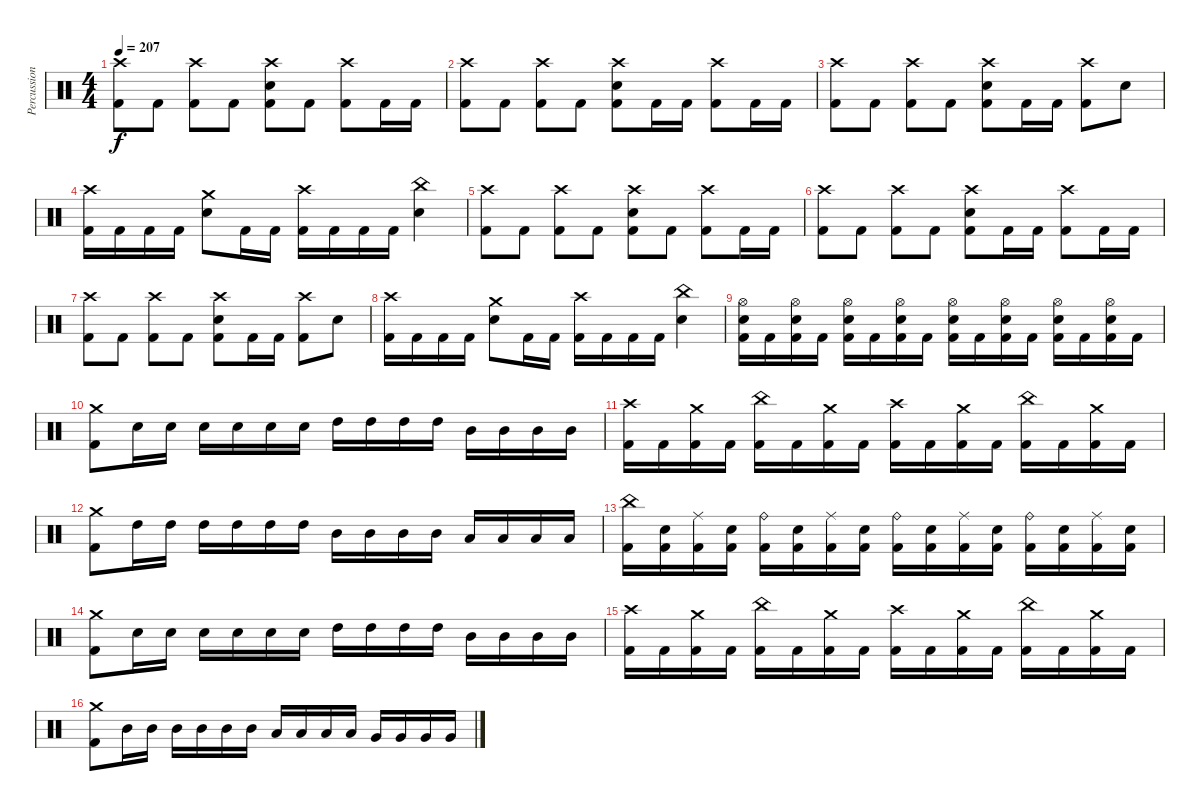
\track ("Percussion" "Percussion") {instrument percussion}
\staff {score}
\articulation defaults
\ts (4 4)
\tempo 207
\clef neutral
\ks c
("Crash high (hit)" "Kick (hit) 2").8{dy f} "Kick (hit) 2".8 ("Crash high (hit)" "Kick (hit) 2").8 "Kick (hit) 2".8 ("Crash high (hit)" "Electric Snare (hit)" "Kick (hit) 2").8 "Kick (hit) 2".8 ("Crash high (hit)" "Kick (hit) 2").8 "Kick (hit) 2".16 "Kick (hit) 2".16 |
("Crash high (hit)" "Kick (hit) 2").8 "Kick (hit) 2".8 ("Crash high (hit)" "Kick (hit) 2").8 "Kick (hit) 2".8 ("Crash high (hit)" "Electric Snare (hit)" "Kick (hit) 2").8 "Kick (hit) 2".16 "Kick (hit) 2".16 ("Crash high (hit)" "Kick (hit) 2").8 "Kick (hit) 2".16 "Kick (hit) 2".16 |
("Crash high (hit)" "Kick (hit) 2").8 "Kick (hit) 2".8 ("Crash high (hit)" "Kick (hit) 2").8 "Kick (hit) 2".8 ("Crash high (hit)" "Electric Snare (hit)" "Kick (hit) 2").8 "Kick (hit) 2".16 "Kick (hit) 2".16 ("Crash high (hit)" "Kick (hit) 2").8 "Electric Snare (hit)".8 |
("Crash high (hit)" "Kick (hit) 2").16 "Kick (hit) 2".16 "Kick (hit) 2".16 "Kick (hit) 2".16 ("Crash medium (hit)" "Electric Snare (hit)").8 "Kick (hit) 2".16 "Kick (hit) 2".16 ("Crash high (hit)" "Kick (hit) 2").16 "Kick (hit) 2".16 "Kick (hit) 2".16 "Kick (hit) 2".16 ("China (hit)" "Electric Snare (hit)").4 |
("Crash high (hit)" "Kick (hit) 2").8 "Kick (hit) 2".8 ("Crash high (hit)" "Kick (hit) 2").8 "Kick (hit) 2".8 ("Crash high (hit)" "Electric Snare (hit)" "Kick (hit) 2").8 "Kick (hit) 2".8 ("Crash high (hit)" "Kick (hit) 2").8 "Kick (hit) 2".16 "Kick (hit) 2".16 |
("Crash high (hit)" "Kick (hit) 2").8 "Kick (hit) 2".8 ("Crash high (hit)" "Kick (hit) 2").8 "Kick (hit) 2".8 ("Crash high (hit)" "Electric Snare (hit)" "Kick (hit) 2").8 "Kick (hit) 2".16 "Kick (hit) 2".16 ("Crash high (hit)" "Kick (hit) 2").8 "Kick (hit) 2".16 "Kick (hit) 2".16 |
("Crash high (hit)" "Kick (hit) 2").8 "Kick (hit) 2".8 ("Crash high (hit)" "Kick (hit) 2").8 "Kick (hit) 2".8 ("Crash high (hit)" "Electric Snare (hit)" "Kick (hit) 2").8 "Kick (hit) 2".16 "Kick (hit) 2".16 ("Crash high (hit)" "Kick (hit) 2").8 "Electric Snare (hit)".8 |
("Crash high (hit)" "Kick (hit) 2").16 "Kick (hit) 2".16 "Kick (hit) 2".16 "Kick (hit) 2".16 ("Crash medium (hit)" "Electric Snare (hit)").8 "Kick (hit) 2".16 "Kick (hit) 2".16 ("Crash high (hit)" "Kick (hit) 2").16 "Kick (hit) 2".16 "Kick (hit) 2".16 "Kick (hit) 2".16 ("China (hit)" "Electric Snare (hit)").4 |
("Hi-Hat (open)" "Electric Snare (hit)" "Kick (hit) 2").16 "Kick (hit) 2".16 ("Hi-Hat (open)" "Electric Snare (hit)" "Kick (hit) 2").16 "Kick (hit) 2".16 ("Hi-Hat (open)" "Electric Snare (hit)" "Kick (hit) 2").16 "Kick (hit) 2".16 ("Hi-Hat (open)" "Electric Snare (hit)" "Kick (hit) 2").16 "Kick (hit) 2".16 ("Hi-Hat (open)" "Electric Snare (hit)" "Kick (hit) 2").16 "Kick (hit) 2".16 ("Hi-Hat (open)" "Electric Snare (hit)" "Kick (hit) 2").16 "Kick (hit) 2".16 ("Hi-Hat (open)" "Electric Snare (hit)" "Kick (hit) 2").16 "Kick (hit) 2".16 ("Hi-Hat (open)" "Electric Snare (hit)" "Kick (hit) 2").16 "Kick (hit) 2".16 |
("Crash medium (hit)" "Kick (hit) 2").8 "Electric Snare (hit)".16 "Electric Snare (hit)".16 "Electric Snare (hit)".16 "Electric Snare (hit)".16 "Electric Snare (hit)".16 "Electric Snare (hit)".16 "High Tom (hit)".16 "High Tom (hit)".16 "High Tom (hit)".16 "High Tom (hit)".16 "Mid Tom (hit)".16 "Mid Tom (hit)".16 "Mid Tom (hit)".16 "Mid Tom (hit)".16 |
("Crash high (hit)" "Kick (hit) 2").16 "Kick (hit) 2".16 ("Crash medium (hit)" "Kick (hit) 2").16 "Kick (hit) 2".16 ("China (hit)" "Kick (hit) 2").16 "Kick (hit) 2".16 ("Crash medium (hit)" "Kick (hit) 2").16 "Kick (hit) 2".16 ("Crash high (hit)" "Kick (hit) 2").16 "Kick (hit) 2".16 ("Crash medium (hit)" "Kick (hit) 2").16 "Kick (hit) 2".16 ("China (hit)" "Kick (hit) 2").16 "Kick (hit) 2".16 ("Crash medium (hit)" "Kick (hit) 2").16 "Kick (hit) 2".16 |
("Crash medium (hit)" "Kick (hit) 2").8 "High Tom (hit)".16 "High Tom (hit)".16 "High Tom (hit)".16 "High Tom (hit)".16 "High Tom (hit)".16 "High Tom (hit)".16 "Mid Tom (hit)".16 "Mid Tom (hit)".16 "Mid Tom (hit)".16 "Mid Tom (hit)".16 "Low Tom (hit)".16 "Low Tom (hit)".16 "Low Tom (hit)".16 "Low Tom (hit)".16 |
("China (hit)" "Kick (hit) 2").16 ("Electric Snare (hit)" "Kick (hit) 2").16 ("Ride (middle)" "Kick (hit) 2").16 ("Electric Snare (hit)" "Kick (hit) 2").16 ("Ride (bell)" "Kick (hit) 2").16 ("Electric Snare (hit)" "Kick (hit) 2").16 ("Ride (middle)" "Kick (hit) 2").16 ("Electric Snare (hit)" "Kick (hit) 2").16 ("Ride (bell)" "Kick (hit) 2").16 ("Electric Snare (hit)" "Kick (hit) 2").16 ("Ride (middle)" "Kick (hit) 2").16 ("Electric Snare (hit)" "Kick (hit) 2").16 ("Ride (bell)" "Kick (hit) 2").16 ("Electric Snare (hit)" "Kick (hit) 2").16 ("Ride (middle)" "Kick (hit) 2").16 ("Electric Snare (hit)" "Kick (hit) 2").16 |
("Crash medium (hit)" "Kick (hit) 2").8 "Electric Snare (hit)".16 "Electric Snare (hit)".16 "Electric Snare (hit)".16 "Electric Snare (hit)".16 "Electric Snare (hit)".16 "Electric Snare (hit)".16 "High Tom (hit)".16 "High Tom (hit)".16 "High Tom (hit)".16 "High Tom (hit)".16 "Mid Tom (hit)".16 "Mid Tom (hit)".16 "Mid Tom (hit)".16 "Mid Tom (hit)".16 |
("Crash high (hit)" "Kick (hit) 2").16 "Kick (hit) 2".16 ("Crash medium (hit)" "Kick (hit) 2").16 "Kick (hit) 2".16 ("China (hit)" "Kick (hit) 2").16 "Kick (hit) 2".16 ("Crash medium (hit)" "Kick (hit) 2").16 "Kick (hit) 2".16 ("Crash high (hit)" "Kick (hit) 2").16 "Kick (hit) 2".16 ("Crash medium (hit)" "Kick (hit) 2").16 "Kick (hit) 2".16 ("China (hit)" "Kick (hit) 2").16 "Kick (hit) 2".16 ("Crash medium (hit)" "Kick (hit) 2").16 "Kick (hit) 2".16 |
("Crash medium (hit)" "Kick (hit) 2").8 "Mid Tom (hit)".16 "Mid Tom (hit)".16 "Mid Tom (hit)".16 "Mid Tom (hit)".16 "Mid Tom (hit)".16 "Mid Tom (hit)".16 "Low Tom (hit)".16 "Low Tom (hit)".16 "Low Tom (hit)".16 "Low Tom (hit)".16 "Very Low Tom (hit)".16 "Very Low Tom (hit)".16 "Very Low Tom (hit)".16 "Very Low Tom (hit)".16
